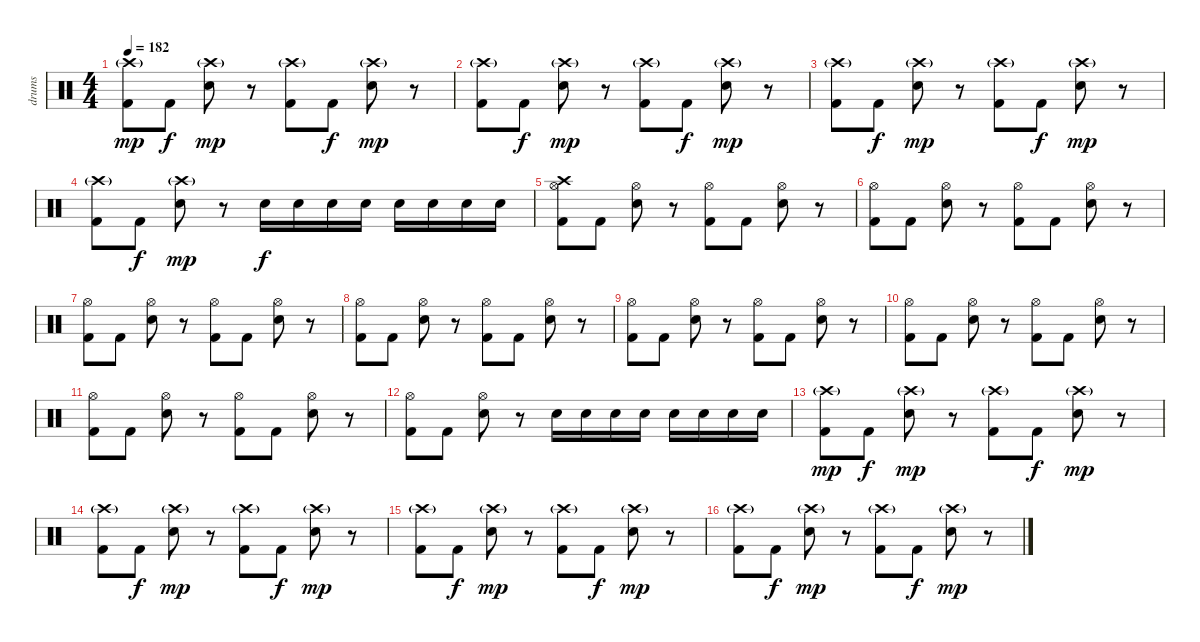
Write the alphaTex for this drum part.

\track ("drums" "drums") {instrument percussion}
\staff {score}
\articulation defaults
\ts (4 4)
\tempo 182
\clef neutral
\ks c
("Kick (hit) 2" "Crash high (hit)"{g}).8{dy mp} "Kick (hit) 2".8{dy f} ("Electric Snare (hit)" "Crash high (hit)"{g}).8{dy mp} r.8 ("Kick (hit) 2" "Crash high (hit)"{g}).8 "Kick (hit) 2".8{dy f} ("Electric Snare (hit)" "Crash high (hit)"{g}).8{dy mp} r.8 |
("Kick (hit) 2" "Crash high (hit)"{g}).8 "Kick (hit) 2".8{dy f} ("Electric Snare (hit)" "Crash high (hit)"{g}).8{dy mp} r.8 ("Kick (hit) 2" "Crash high (hit)"{g}).8 "Kick (hit) 2".8{dy f} ("Electric Snare (hit)" "Crash high (hit)"{g}).8{dy mp} r.8 |
("Kick (hit) 2" "Crash high (hit)"{g}).8 "Kick (hit) 2".8{dy f} ("Electric Snare (hit)" "Crash high (hit)"{g}).8{dy mp} r.8 ("Kick (hit) 2" "Crash high (hit)"{g}).8 "Kick (hit) 2".8{dy f} ("Electric Snare (hit)" "Crash high (hit)"{g}).8{dy mp} r.8 |
("Kick (hit) 2" "Crash high (hit)"{g}).8 "Kick (hit) 2".8{dy f} ("Electric Snare (hit)" "Crash high (hit)"{g}).8{dy mp} r.8 "Electric Snare (hit)".16{dy f} "Electric Snare (hit)".16 "Electric Snare (hit)".16 "Electric Snare (hit)".16 "Electric Snare (hit)".16 "Electric Snare (hit)".16 "Electric Snare (hit)".16 "Electric Snare (hit)".16 |
("Kick (hit) 2" "Hi-Hat (open)" "Crash high (hit)").8 "Kick (hit) 2".8 ("Electric Snare (hit)" "Hi-Hat (open)").8 r.8 ("Kick (hit) 2" "Hi-Hat (open)").8 "Kick (hit) 2".8 ("Electric Snare (hit)" "Hi-Hat (open)").8 r.8 |
("Kick (hit) 2" "Hi-Hat (open)").8 "Kick (hit) 2".8 ("Electric Snare (hit)" "Hi-Hat (open)").8 r.8 ("Kick (hit) 2" "Hi-Hat (open)").8 "Kick (hit) 2".8 ("Electric Snare (hit)" "Hi-Hat (open)").8 r.8 |
("Kick (hit) 2" "Hi-Hat (open)").8 "Kick (hit) 2".8 ("Electric Snare (hit)" "Hi-Hat (open)").8 r.8 ("Kick (hit) 2" "Hi-Hat (open)").8 "Kick (hit) 2".8 ("Electric Snare (hit)" "Hi-Hat (open)").8 r.8 |
("Kick (hit) 2" "Hi-Hat (open)").8 "Kick (hit) 2".8 ("Electric Snare (hit)" "Hi-Hat (open)").8 r.8 ("Kick (hit) 2" "Hi-Hat (open)").8 "Kick (hit) 2".8 ("Electric Snare (hit)" "Hi-Hat (open)").8 r.8 |
("Kick (hit) 2" "Hi-Hat (open)").8 "Kick (hit) 2".8 ("Electric Snare (hit)" "Hi-Hat (open)").8 r.8 ("Kick (hit) 2" "Hi-Hat (open)").8 "Kick (hit) 2".8 ("Electric Snare (hit)" "Hi-Hat (open)").8 r.8 |
("Kick (hit) 2" "Hi-Hat (open)").8 "Kick (hit) 2".8 ("Electric Snare (hit)" "Hi-Hat (open)").8 r.8 ("Kick (hit) 2" "Hi-Hat (open)").8 "Kick (hit) 2".8 ("Electric Snare (hit)" "Hi-Hat (open)").8 r.8 |
("Kick (hit) 2" "Hi-Hat (open)").8 "Kick (hit) 2".8 ("Electric Snare (hit)" "Hi-Hat (open)").8 r.8 ("Kick (hit) 2" "Hi-Hat (open)").8 "Kick (hit) 2".8 ("Electric Snare (hit)" "Hi-Hat (open)").8 r.8 |
("Kick (hit) 2" "Hi-Hat (open)").8 "Kick (hit) 2".8 ("Electric Snare (hit)" "Hi-Hat (open)").8 r.8 "Electric Snare (hit)".16 "Electric Snare (hit)".16 "Electric Snare (hit)".16 "Electric Snare (hit)".16 "Electric Snare (hit)".16 "Electric Snare (hit)".16 "Electric Snare (hit)".16 "Electric Snare (hit)".16 |
("Kick (hit) 2" "Crash high (hit)"{g}).8{dy mp} "Kick (hit) 2".8{dy f} ("Electric Snare (hit)" "Crash high (hit)"{g}).8{dy mp} r.8 ("Kick (hit) 2" "Crash high (hit)"{g}).8 "Kick (hit) 2".8{dy f} ("Electric Snare (hit)" "Crash high (hit)"{g}).8{dy mp} r.8 |
("Kick (hit) 2" "Crash high (hit)"{g}).8 "Kick (hit) 2".8{dy f} ("Electric Snare (hit)" "Crash high (hit)"{g}).8{dy mp} r.8 ("Kick (hit) 2" "Crash high (hit)"{g}).8 "Kick (hit) 2".8{dy f} ("Electric Snare (hit)" "Crash high (hit)"{g}).8{dy mp} r.8 |
("Kick (hit) 2" "Crash high (hit)"{g}).8 "Kick (hit) 2".8{dy f} ("Electric Snare (hit)" "Crash high (hit)"{g}).8{dy mp} r.8 ("Kick (hit) 2" "Crash high (hit)"{g}).8 "Kick (hit) 2".8{dy f} ("Electric Snare (hit)" "Crash high (hit)"{g}).8{dy mp} r.8 |
("Kick (hit) 2" "Crash high (hit)"{g}).8 "Kick (hit) 2".8{dy f} ("Electric Snare (hit)" "Crash high (hit)"{g}).8{dy mp} r.8 ("Kick (hit) 2" "Crash high (hit)"{g}).8 "Kick (hit) 2".8{dy f} ("Electric Snare (hit)" "Crash high (hit)"{g}).8{dy mp} r.8
